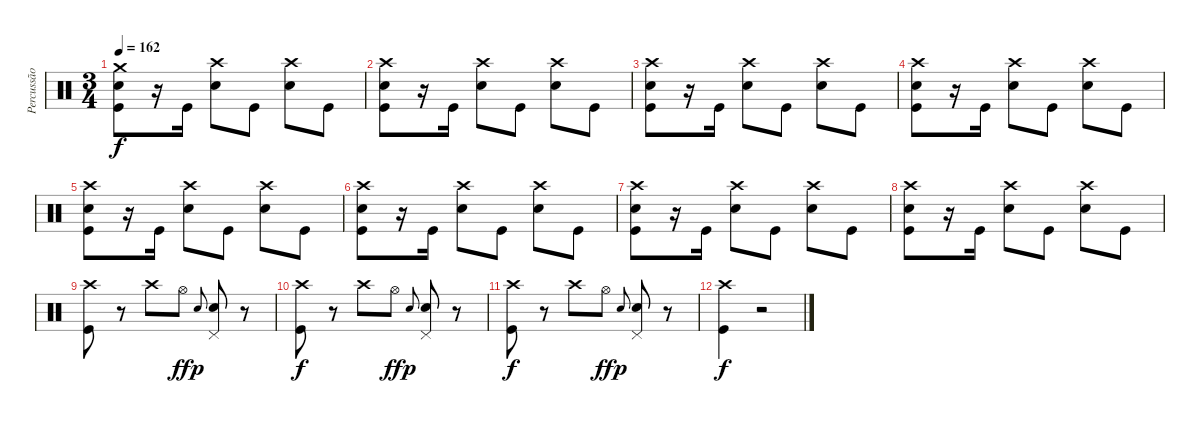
\track ("Percussão" "Percussão") {instrument percussion}
\staff {score}
\articulation defaults
\ts (3 4)
\tempo 162
\clef neutral
\ks c
("Crash medium (hit)" "Snare (hit) 2" "Kick (hit)").8{dy f} r.16 "Kick (hit)".16 ("Crash high (hit)" "Snare (hit) 2").8 "Kick (hit)".8 ("Crash high (hit)" "Snare (hit) 2").8 "Kick (hit)".8 |
("Crash high (hit)" "Snare (hit) 2" "Kick (hit)").8 r.16 "Kick (hit)".16 ("Crash high (hit)" "Snare (hit) 2").8 "Kick (hit)".8 ("Crash high (hit)" "Snare (hit) 2").8 "Kick (hit)".8 |
("Crash high (hit)" "Snare (hit) 2" "Kick (hit)").8 r.16 "Kick (hit)".16 ("Crash high (hit)" "Snare (hit) 2").8 "Kick (hit)".8 ("Crash high (hit)" "Snare (hit) 2").8 "Kick (hit)".8 |
("Crash high (hit)" "Snare (hit) 2" "Kick (hit)").8 r.16 "Kick (hit)".16 ("Crash high (hit)" "Snare (hit) 2").8 "Kick (hit)".8 ("Crash high (hit)" "Snare (hit) 2").8 "Kick (hit)".8 |
("Crash high (hit)" "Snare (hit) 2" "Kick (hit)").8 r.16 "Kick (hit)".16 ("Crash high (hit)" "Snare (hit) 2").8 "Kick (hit)".8 ("Crash high (hit)" "Snare (hit) 2").8 "Kick (hit)".8 |
("Crash high (hit)" "Snare (hit) 2" "Kick (hit)").8 r.16 "Kick (hit)".16 ("Crash high (hit)" "Snare (hit) 2").8 "Kick (hit)".8 ("Crash high (hit)" "Snare (hit) 2").8 "Kick (hit)".8 |
("Crash high (hit)" "Snare (hit) 2" "Kick (hit)").8 r.16 "Kick (hit)".16 ("Crash high (hit)" "Snare (hit) 2").8 "Kick (hit)".8 ("Crash high (hit)" "Snare (hit) 2").8 "Kick (hit)".8 |
("Crash high (hit)" "Snare (hit) 2" "Kick (hit)").8 r.16 "Kick (hit)".16 ("Crash high (hit)" "Snare (hit) 2").8 "Kick (hit)".8 ("Crash high (hit)" "Snare (hit) 2").8 "Kick (hit)".8 |
("Crash high (hit)" "Kick (hit)").8 r.8 "Crash high (hit)".8 "Hi-Hat (open)".8{dy ff} "Snare (hit) 2".8{gr onbeat dy p} ("Snare (hit) 2" "Pedal Hi-Hat (hit)").8 r.8 |
("Crash high (hit)" "Kick (hit)").8{dy f} r.8 "Crash high (hit)".8 "Hi-Hat (open)".8{dy ff} "Snare (hit) 2".8{gr onbeat dy p} ("Snare (hit) 2" "Pedal Hi-Hat (hit)").8 r.8 |
("Crash high (hit)" "Kick (hit)").8{dy f} r.8 "Crash high (hit)".8 "Hi-Hat (open)".8{dy ff} "Snare (hit) 2".8{gr onbeat dy p} ("Snare (hit) 2" "Pedal Hi-Hat (hit)").8 r.8 |
("Crash high (hit)" "Kick (hit)").4{dy f volume 0} r.2
